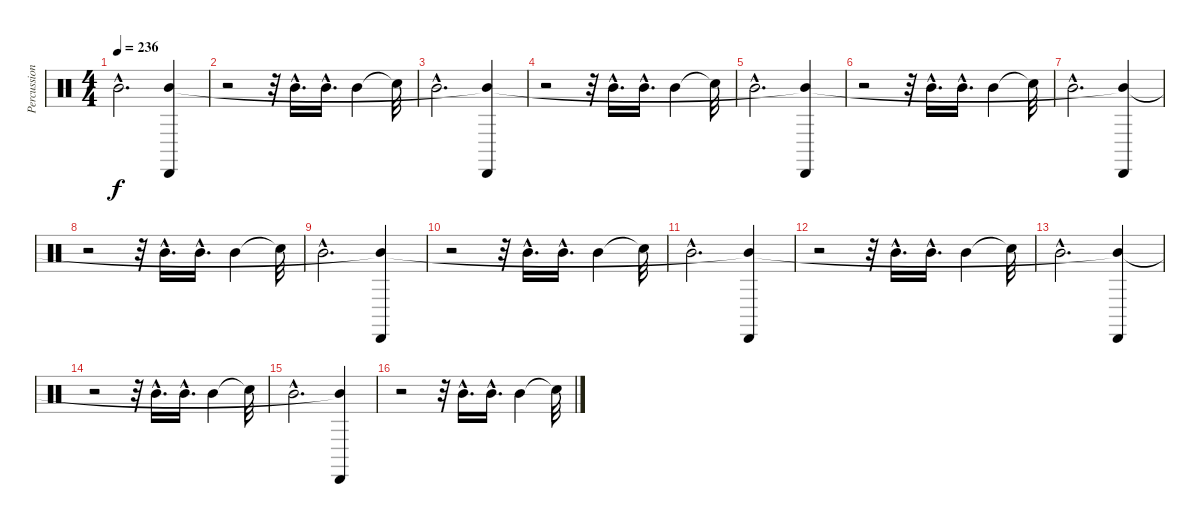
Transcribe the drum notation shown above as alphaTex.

\track ("Percussions" "Percussion") {instrument percussion}
\staff {score}
\articulation defaults
\ts (4 4)
\tempo 236
\clef neutral
\ks c "Mid Tom (hit)"{hac}.2{d dy f}
("Cabasa (hit)" "Mid Tom (hit)"{t}).4 |
r.2 r.32 "Mid Tom (hit)"{hac}.16{d} "Mid Tom (hit)"{hac}.16{d} "Mid Tom (hit)".4 "Snare (hit)"{t}.32 |
"Mid Tom (hit)"{hac}.2{d} ("Cabasa (hit)" "Mid Tom (hit)"{t}).4 |
r.2 r.32 "Mid Tom (hit)"{hac}.16{d} "Mid Tom (hit)"{hac}.16{d} "Mid Tom (hit)".4 "Snare (hit)"{t}.32 |
"Mid Tom (hit)"{hac}.2{d} ("Cabasa (hit)" "Mid Tom (hit)"{t}).4 |
r.2 r.32 "Mid Tom (hit)"{hac}.16{d} "Mid Tom (hit)"{hac}.16{d} "Mid Tom (hit)".4 "Snare (hit)"{t}.32 |
"Mid Tom (hit)"{hac}.2{d} ("Cabasa (hit)" "Mid Tom (hit)"{t}).4 |
r.2 r.32 "Mid Tom (hit)"{hac}.16{d} "Mid Tom (hit)"{hac}.16{d} "Mid Tom (hit)".4 "Snare (hit)"{t}.32 |
"Mid Tom (hit)"{hac}.2{d} ("Cabasa (hit)" "Mid Tom (hit)"{t}).4 |
r.2 r.32 "Mid Tom (hit)"{hac}.16{d} "Mid Tom (hit)"{hac}.16{d} "Mid Tom (hit)".4 "Snare (hit)"{t}.32 |
"Mid Tom (hit)"{hac}.2{d} ("Cabasa (hit)" "Mid Tom (hit)"{t}).4 |
r.2 r.32 "Mid Tom (hit)"{hac}.16{d} "Mid Tom (hit)"{hac}.16{d} "Mid Tom (hit)".4 "Snare (hit)"{t}.32 |
"Mid Tom (hit)"{hac}.2{d} ("Cabasa (hit)" "Mid Tom (hit)"{t}).4 |
r.2 r.32 "Mid Tom (hit)"{hac}.16{d} "Mid Tom (hit)"{hac}.16{d} "Mid Tom (hit)".4 "Snare (hit)"{t}.32 |
"Mid Tom (hit)"{hac}.2{d} ("Cabasa (hit)" "Mid Tom (hit)"{t}).4 |
r.2 r.32 "Mid Tom (hit)"{hac}.16{d} "Mid Tom (hit)"{hac}.16{d} "Mid Tom (hit)".4 "Snare (hit)"{t}.32
